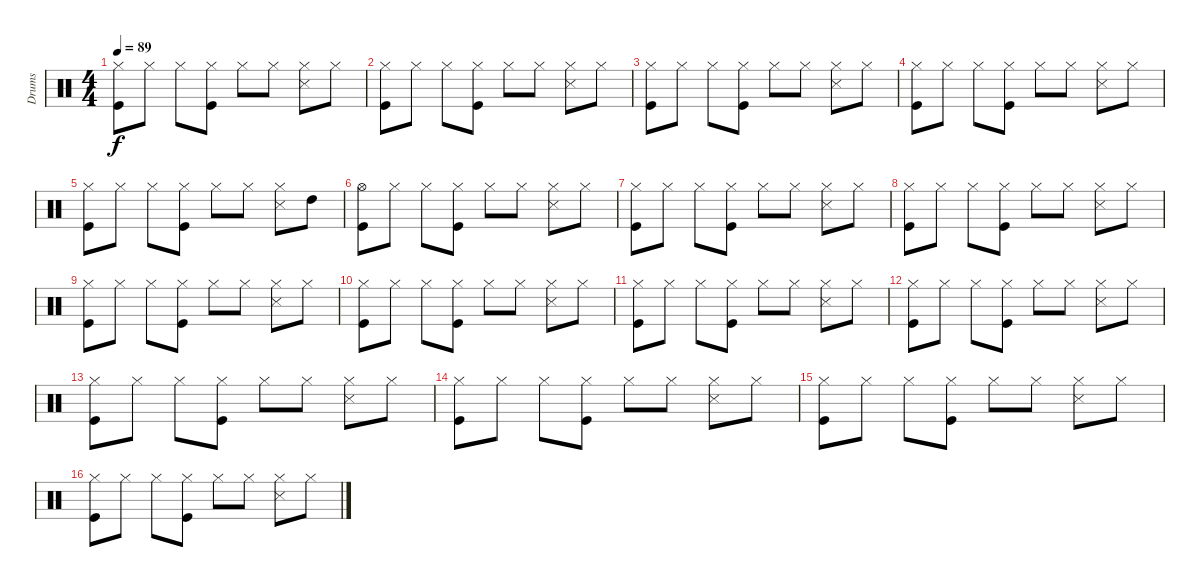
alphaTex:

\track ("Drums" "Drums") {instrument percussion}
\staff {score}
\articulation defaults
\ts (4 4)
\tempo 89
\clef neutral
\ks c
("Hi-Hat (closed)" "Kick (hit)").8{dy f} "Hi-Hat (closed)".8 "Hi-Hat (closed)".8 ("Hi-Hat (closed)" "Kick (hit)").8 "Hi-Hat (closed)".8 "Hi-Hat (closed)".8 ("Hi-Hat (closed)" "Snare (side stick) 3").8 "Hi-Hat (closed)".8 |
("Hi-Hat (closed)" "Kick (hit)").8 "Hi-Hat (closed)".8 "Hi-Hat (closed)".8 ("Hi-Hat (closed)" "Kick (hit)").8 "Hi-Hat (closed)".8 "Hi-Hat (closed)".8 ("Hi-Hat (closed)" "Snare (side stick) 3").8 "Hi-Hat (closed)".8 |
("Hi-Hat (closed)" "Kick (hit)").8 "Hi-Hat (closed)".8 "Hi-Hat (closed)".8 ("Hi-Hat (closed)" "Kick (hit)").8 "Hi-Hat (closed)".8 "Hi-Hat (closed)".8 ("Hi-Hat (closed)" "Snare (side stick) 3").8 "Hi-Hat (closed)".8 |
("Hi-Hat (closed)" "Kick (hit)").8 "Hi-Hat (closed)".8 "Hi-Hat (closed)".8 ("Hi-Hat (closed)" "Kick (hit)").8 "Hi-Hat (closed)".8 "Hi-Hat (closed)".8 ("Hi-Hat (closed)" "Snare (side stick) 3").8 "Hi-Hat (closed)".8 |
("Hi-Hat (closed)" "Kick (hit)").8 "Hi-Hat (closed)".8 "Hi-Hat (closed)".8 ("Hi-Hat (closed)" "Kick (hit)").8 "Hi-Hat (closed)".8 "Hi-Hat (closed)".8 ("Hi-Hat (closed)" "Snare (side stick) 3").8 "High Tom (hit)".8 |
("Hi-Hat (open)" "Kick (hit)").8 "Hi-Hat (closed)".8 "Hi-Hat (closed)".8 ("Hi-Hat (closed)" "Kick (hit)").8 "Hi-Hat (closed)".8 "Hi-Hat (closed)".8 ("Hi-Hat (closed)" "Snare (side stick) 3").8 "Hi-Hat (closed)".8 |
("Hi-Hat (closed)" "Kick (hit)").8 "Hi-Hat (closed)".8 "Hi-Hat (closed)".8 ("Hi-Hat (closed)" "Kick (hit)").8 "Hi-Hat (closed)".8 "Hi-Hat (closed)".8 ("Hi-Hat (closed)" "Snare (side stick) 3").8 "Hi-Hat (closed)".8 |
("Hi-Hat (closed)" "Kick (hit)").8 "Hi-Hat (closed)".8 "Hi-Hat (closed)".8 ("Hi-Hat (closed)" "Kick (hit)").8 "Hi-Hat (closed)".8 "Hi-Hat (closed)".8 ("Hi-Hat (closed)" "Snare (side stick) 3").8 "Hi-Hat (closed)".8 |
("Hi-Hat (closed)" "Kick (hit)").8 "Hi-Hat (closed)".8 "Hi-Hat (closed)".8 ("Hi-Hat (closed)" "Kick (hit)").8 "Hi-Hat (closed)".8 "Hi-Hat (closed)".8 ("Hi-Hat (closed)" "Snare (side stick) 3").8 "Hi-Hat (closed)".8 |
("Hi-Hat (closed)" "Kick (hit)").8 "Hi-Hat (closed)".8 "Hi-Hat (closed)".8 ("Hi-Hat (closed)" "Kick (hit)").8 "Hi-Hat (closed)".8 "Hi-Hat (closed)".8 ("Hi-Hat (closed)" "Snare (side stick) 3").8 "Hi-Hat (closed)".8 |
("Hi-Hat (closed)" "Kick (hit)").8 "Hi-Hat (closed)".8 "Hi-Hat (closed)".8 ("Hi-Hat (closed)" "Kick (hit)").8 "Hi-Hat (closed)".8 "Hi-Hat (closed)".8 ("Hi-Hat (closed)" "Snare (side stick) 3").8 "Hi-Hat (closed)".8 |
("Hi-Hat (closed)" "Kick (hit)").8 "Hi-Hat (closed)".8 "Hi-Hat (closed)".8 ("Hi-Hat (closed)" "Kick (hit)").8 "Hi-Hat (closed)".8 "Hi-Hat (closed)".8 ("Hi-Hat (closed)" "Snare (side stick) 3").8 "Hi-Hat (closed)".8 |
("Hi-Hat (closed)" "Kick (hit)").8 "Hi-Hat (closed)".8 "Hi-Hat (closed)".8 ("Hi-Hat (closed)" "Kick (hit)").8 "Hi-Hat (closed)".8 "Hi-Hat (closed)".8 ("Hi-Hat (closed)" "Snare (side stick) 3").8 "Hi-Hat (closed)".8 |
("Hi-Hat (closed)" "Kick (hit)").8 "Hi-Hat (closed)".8 "Hi-Hat (closed)".8 ("Hi-Hat (closed)" "Kick (hit)").8 "Hi-Hat (closed)".8 "Hi-Hat (closed)".8 ("Hi-Hat (closed)" "Snare (side stick) 3").8 "Hi-Hat (closed)".8 |
("Hi-Hat (closed)" "Kick (hit)").8 "Hi-Hat (closed)".8 "Hi-Hat (closed)".8 ("Hi-Hat (closed)" "Kick (hit)").8 "Hi-Hat (closed)".8 "Hi-Hat (closed)".8 ("Hi-Hat (closed)" "Snare (side stick) 3").8 "Hi-Hat (closed)".8 |
("Hi-Hat (closed)" "Kick (hit)").8 "Hi-Hat (closed)".8 "Hi-Hat (closed)".8 ("Hi-Hat (closed)" "Kick (hit)").8 "Hi-Hat (closed)".8 "Hi-Hat (closed)".8 ("Hi-Hat (closed)" "Snare (side stick) 3").8 "Hi-Hat (closed)".8
